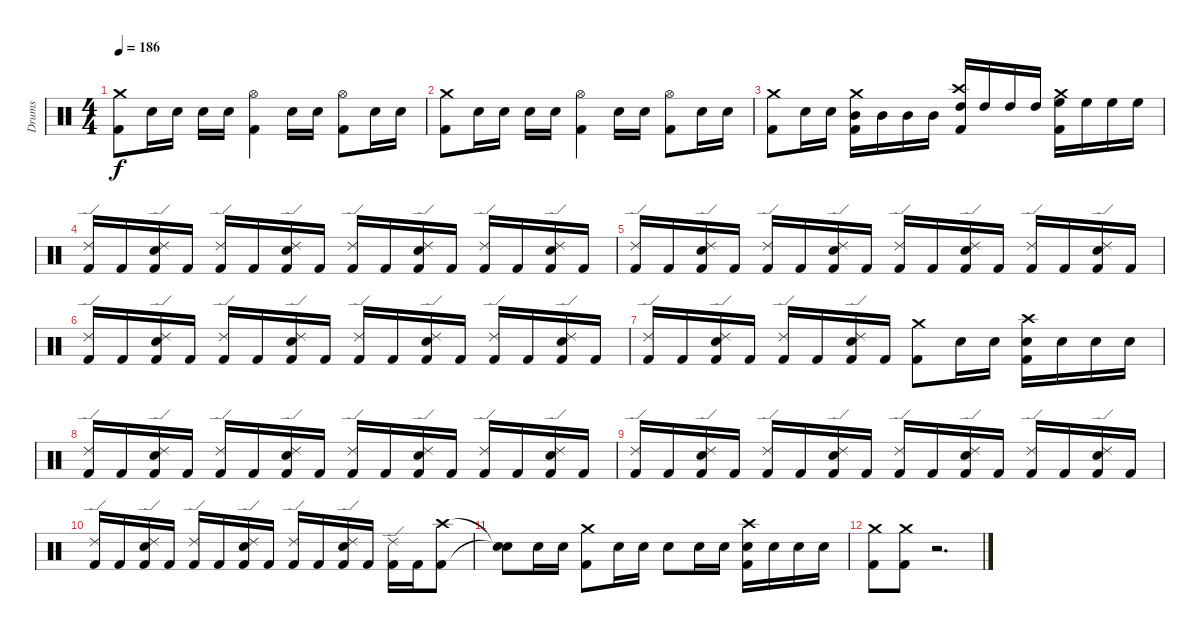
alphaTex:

\track ("Drums" "Drums") {instrument percussion}
\staff {score}
\articulation defaults
\ts (4 4)
\tempo 186
\clef neutral
\ks c
("Crash medium (hit)" "Kick (hit) 2").8{dy f} "Electric Snare (hit)".16 "Electric Snare (hit)".16 "Electric Snare (hit)".16 "Electric Snare (hit)".16 ("Hi-Hat (open)" "Kick (hit) 2").4 "Electric Snare (hit)".16 "Electric Snare (hit)".16 ("Hi-Hat (open)" "Kick (hit) 2").8 "Electric Snare (hit)".16 "Electric Snare (hit)".16 |
("Crash medium (hit)" "Kick (hit) 2").8 "Electric Snare (hit)".16 "Electric Snare (hit)".16 "Electric Snare (hit)".16 "Electric Snare (hit)".16 ("Hi-Hat (open)" "Kick (hit) 2").4 "Electric Snare (hit)".16 "Electric Snare (hit)".16 ("Hi-Hat (open)" "Kick (hit) 2").8 "Electric Snare (hit)".16 "Electric Snare (hit)".16 |
("Crash medium (hit)" "Kick (hit) 2").8 "Electric Snare (hit)".16 "Electric Snare (hit)".16 ("Crash medium (hit)" "Mid Tom (hit)" "Kick (hit) 2").16 "Mid Tom (hit)".16 "Mid Tom (hit)".16 "Mid Tom (hit)".16 ("Crash high (hit)" "High Tom (hit)" "Kick (hit) 2").16 "High Tom (hit)".16 "High Tom (hit)".16 "High Tom (hit)".16 ("Crash medium (hit)" "High Floor Tom (hit)" "Kick (hit) 2").16 "High Floor Tom (hit)".16 "High Floor Tom (hit)".16 "High Floor Tom (hit)".16 |
("Ride (edge) 2" "Kick (hit) 2").16 "Kick (hit) 2".16 ("Electric Snare (hit)" "Ride (edge) 2" "Kick (hit) 2").16 "Kick (hit) 2".16 ("Ride (edge) 2" "Kick (hit) 2").16 "Kick (hit) 2".16 ("Electric Snare (hit)" "Ride (edge) 2" "Kick (hit) 2").16 "Kick (hit) 2".16 ("Ride (edge) 2" "Kick (hit) 2").16 "Kick (hit) 2".16 ("Electric Snare (hit)" "Ride (edge) 2" "Kick (hit) 2").16 "Kick (hit) 2".16 ("Ride (edge) 2" "Kick (hit) 2").16 "Kick (hit) 2".16 ("Electric Snare (hit)" "Ride (edge) 2" "Kick (hit) 2").16 "Kick (hit) 2".16 |
("Ride (edge) 2" "Kick (hit) 2").16 "Kick (hit) 2".16 ("Electric Snare (hit)" "Ride (edge) 2" "Kick (hit) 2").16 "Kick (hit) 2".16 ("Ride (edge) 2" "Kick (hit) 2").16 "Kick (hit) 2".16 ("Electric Snare (hit)" "Ride (edge) 2" "Kick (hit) 2").16 "Kick (hit) 2".16 ("Ride (edge) 2" "Kick (hit) 2").16 "Kick (hit) 2".16 ("Electric Snare (hit)" "Ride (edge) 2" "Kick (hit) 2").16 "Kick (hit) 2".16 ("Ride (edge) 2" "Kick (hit) 2").16 "Kick (hit) 2".16 ("Electric Snare (hit)" "Ride (edge) 2" "Kick (hit) 2").16 "Kick (hit) 2".16 |
("Ride (edge) 2" "Kick (hit) 2").16 "Kick (hit) 2".16 ("Electric Snare (hit)" "Ride (edge) 2" "Kick (hit) 2").16 "Kick (hit) 2".16 ("Ride (edge) 2" "Kick (hit) 2").16 "Kick (hit) 2".16 ("Electric Snare (hit)" "Ride (edge) 2" "Kick (hit) 2").16 "Kick (hit) 2".16 ("Ride (edge) 2" "Kick (hit) 2").16 "Kick (hit) 2".16 ("Electric Snare (hit)" "Ride (edge) 2" "Kick (hit) 2").16 "Kick (hit) 2".16 ("Ride (edge) 2" "Kick (hit) 2").16 "Kick (hit) 2".16 ("Electric Snare (hit)" "Ride (edge) 2" "Kick (hit) 2").16 "Kick (hit) 2".16 |
("Ride (edge) 2" "Kick (hit) 2").16 "Kick (hit) 2".16 ("Electric Snare (hit)" "Ride (edge) 2" "Kick (hit) 2").16 "Kick (hit) 2".16 ("Ride (edge) 2" "Kick (hit) 2").16 "Kick (hit) 2".16 ("Electric Snare (hit)" "Ride (edge) 2" "Kick (hit) 2").16 "Kick (hit) 2".16 ("Crash medium (hit)" "Kick (hit) 2").8 "Electric Snare (hit)".16 "Electric Snare (hit)".16 ("Crash high (hit)" "Electric Snare (hit)" "Kick (hit) 2").16 "Electric Snare (hit)".16 "Electric Snare (hit)".16 "Electric Snare (hit)".16 |
("Ride (edge) 2" "Kick (hit) 2").16 "Kick (hit) 2".16 ("Electric Snare (hit)" "Ride (edge) 2" "Kick (hit) 2").16 "Kick (hit) 2".16 ("Ride (edge) 2" "Kick (hit) 2").16 "Kick (hit) 2".16 ("Electric Snare (hit)" "Ride (edge) 2" "Kick (hit) 2").16 "Kick (hit) 2".16 ("Ride (edge) 2" "Kick (hit) 2").16 "Kick (hit) 2".16 ("Electric Snare (hit)" "Ride (edge) 2" "Kick (hit) 2").16 "Kick (hit) 2".16 ("Ride (edge) 2" "Kick (hit) 2").16 "Kick (hit) 2".16 ("Electric Snare (hit)" "Ride (edge) 2" "Kick (hit) 2").16 "Kick (hit) 2".16 |
("Ride (edge) 2" "Kick (hit) 2").16 "Kick (hit) 2".16 ("Electric Snare (hit)" "Ride (edge) 2" "Kick (hit) 2").16 "Kick (hit) 2".16 ("Ride (edge) 2" "Kick (hit) 2").16 "Kick (hit) 2".16 ("Electric Snare (hit)" "Ride (edge) 2" "Kick (hit) 2").16 "Kick (hit) 2".16 ("Ride (edge) 2" "Kick (hit) 2").16 "Kick (hit) 2".16 ("Electric Snare (hit)" "Ride (edge) 2" "Kick (hit) 2").16 "Kick (hit) 2".16 ("Ride (edge) 2" "Kick (hit) 2").16 "Kick (hit) 2".16 ("Electric Snare (hit)" "Ride (edge) 2" "Kick (hit) 2").16 "Kick (hit) 2".16 |
("Ride (edge) 2" "Kick (hit) 2").16 "Kick (hit) 2".16 ("Electric Snare (hit)" "Ride (edge) 2" "Kick (hit) 2").16 "Kick (hit) 2".16 ("Ride (edge) 2" "Kick (hit) 2").16 "Kick (hit) 2".16 ("Electric Snare (hit)" "Ride (edge) 2" "Kick (hit) 2").16 "Kick (hit) 2".16 ("Ride (edge) 2" "Kick (hit) 2").16 "Kick (hit) 2".16 ("Electric Snare (hit)" "Ride (edge) 2" "Kick (hit) 2").16 "Kick (hit) 2".16 ("Ride (edge) 2" "Kick (hit) 2").16 "Kick (hit) 2".16 ("Crash high (hit)" "Kick (hit) 2").8 |
("Snare (hit)"{t} "Snare (hit)"{t}).8 "Electric Snare (hit)".16 "Electric Snare (hit)".16 ("Crash medium (hit)" "Kick (hit) 2").8 "Electric Snare (hit)".16 "Electric Snare (hit)".16 "Electric Snare (hit)".8 "Electric Snare (hit)".16 "Electric Snare (hit)".16 ("Crash high (hit)" "Electric Snare (hit)" "Kick (hit) 2").16 "Electric Snare (hit)".16 "Electric Snare (hit)".16 "Electric Snare (hit)".16 |
("Crash medium (hit)" "Kick (hit) 2").8 ("Crash medium (hit)" "Kick (hit) 2").8 r.2{d}
